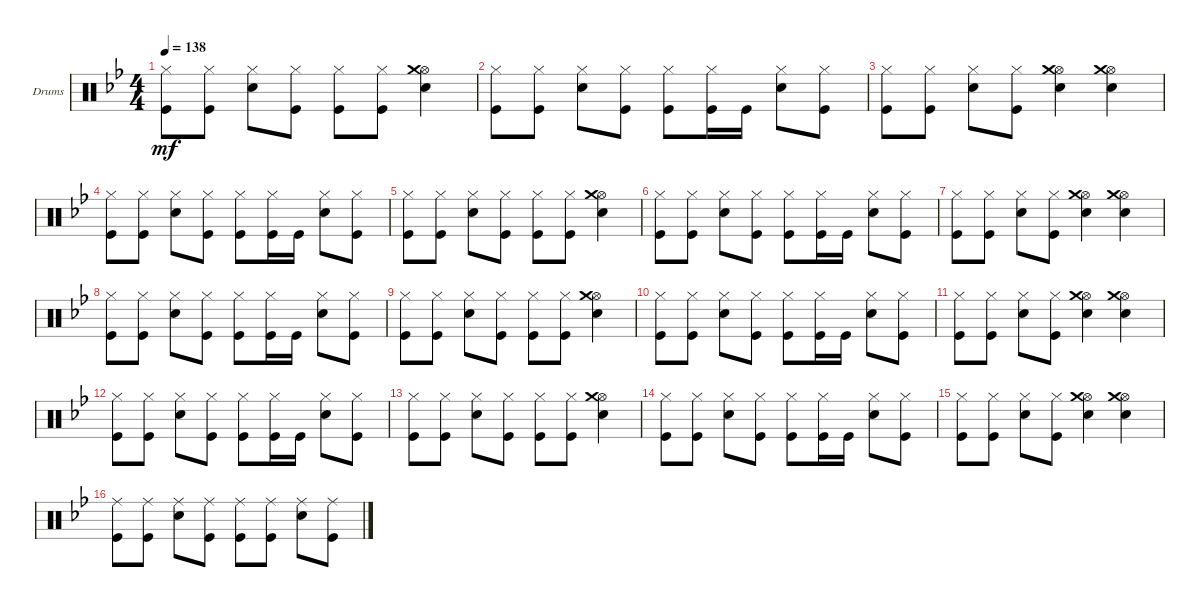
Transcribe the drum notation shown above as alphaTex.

\defaultSystemsLayout 4
\bracketExtendMode groupsimilarinstruments
\firstSystemTrackNameOrientation horizontal
\otherSystemsTrackNameOrientation horizontal
\track ("Drumkit" "Drums") {instrument percussion}
\staff {score}
\articulation defaults
\ts (4 4)
\tempo 138
\clef neutral
\ks gminor
("Hi-Hat (closed)" "Kick (hit)").8{dy mf} ("Hi-Hat (closed)" "Kick (hit)").8 ("Hi-Hat (closed)" "Snare (hit) 2").8 ("Hi-Hat (closed)" "Kick (hit)").8 ("Hi-Hat (closed)" "Kick (hit)").8 ("Hi-Hat (closed)" "Kick (hit)").8 ("Hi-Hat (open)" "Crash medium (hit)" "Snare (hit) 2").4 |
("Hi-Hat (closed)" "Kick (hit)").8 ("Hi-Hat (closed)" "Kick (hit)").8 ("Hi-Hat (closed)" "Snare (hit) 2").8 ("Hi-Hat (closed)" "Kick (hit)").8 ("Hi-Hat (closed)" "Kick (hit)").8 ("Hi-Hat (closed)" "Kick (hit)").16 "Kick (hit)".16 ("Hi-Hat (closed)" "Snare (hit) 2").8 ("Hi-Hat (closed)" "Kick (hit)").8 |
("Hi-Hat (closed)" "Kick (hit)").8 ("Hi-Hat (closed)" "Kick (hit)").8 ("Hi-Hat (closed)" "Snare (hit) 2").8 ("Hi-Hat (closed)" "Kick (hit)").8 ("Hi-Hat (open)" "Crash medium (hit)" "Snare (hit) 2").4 ("Hi-Hat (open)" "Crash medium (hit)" "Snare (hit) 2").4 |
("Hi-Hat (closed)" "Kick (hit)").8 ("Hi-Hat (closed)" "Kick (hit)").8 ("Hi-Hat (closed)" "Snare (hit) 2").8 ("Hi-Hat (closed)" "Kick (hit)").8 ("Hi-Hat (closed)" "Kick (hit)").8 ("Hi-Hat (closed)" "Kick (hit)").16 "Kick (hit)".16 ("Hi-Hat (closed)" "Snare (hit) 2").8 ("Hi-Hat (closed)" "Kick (hit)").8 |
("Hi-Hat (closed)" "Kick (hit)").8 ("Hi-Hat (closed)" "Kick (hit)").8 ("Hi-Hat (closed)" "Snare (hit) 2").8 ("Hi-Hat (closed)" "Kick (hit)").8 ("Hi-Hat (closed)" "Kick (hit)").8 ("Hi-Hat (closed)" "Kick (hit)").8 ("Hi-Hat (open)" "Crash medium (hit)" "Snare (hit) 2").4 |
("Hi-Hat (closed)" "Kick (hit)").8 ("Hi-Hat (closed)" "Kick (hit)").8 ("Hi-Hat (closed)" "Snare (hit) 2").8 ("Hi-Hat (closed)" "Kick (hit)").8 ("Hi-Hat (closed)" "Kick (hit)").8 ("Hi-Hat (closed)" "Kick (hit)").16 "Kick (hit)".16 ("Hi-Hat (closed)" "Snare (hit) 2").8 ("Hi-Hat (closed)" "Kick (hit)").8 |
("Hi-Hat (closed)" "Kick (hit)").8 ("Hi-Hat (closed)" "Kick (hit)").8 ("Hi-Hat (closed)" "Snare (hit) 2").8 ("Hi-Hat (closed)" "Kick (hit)").8 ("Hi-Hat (open)" "Crash medium (hit)" "Snare (hit) 2").4 ("Hi-Hat (open)" "Crash medium (hit)" "Snare (hit) 2").4 |
("Hi-Hat (closed)" "Kick (hit)").8 ("Hi-Hat (closed)" "Kick (hit)").8 ("Hi-Hat (closed)" "Snare (hit) 2").8 ("Hi-Hat (closed)" "Kick (hit)").8 ("Hi-Hat (closed)" "Kick (hit)").8 ("Hi-Hat (closed)" "Kick (hit)").16 "Kick (hit)".16 ("Hi-Hat (closed)" "Snare (hit) 2").8 ("Hi-Hat (closed)" "Kick (hit)").8 |
("Hi-Hat (closed)" "Kick (hit)").8 ("Hi-Hat (closed)" "Kick (hit)").8 ("Hi-Hat (closed)" "Snare (hit) 2").8 ("Hi-Hat (closed)" "Kick (hit)").8 ("Hi-Hat (closed)" "Kick (hit)").8 ("Hi-Hat (closed)" "Kick (hit)").8 ("Hi-Hat (open)" "Crash medium (hit)" "Snare (hit) 2").4 |
("Hi-Hat (closed)" "Kick (hit)").8 ("Hi-Hat (closed)" "Kick (hit)").8 ("Hi-Hat (closed)" "Snare (hit) 2").8 ("Hi-Hat (closed)" "Kick (hit)").8 ("Hi-Hat (closed)" "Kick (hit)").8 ("Hi-Hat (closed)" "Kick (hit)").16 "Kick (hit)".16 ("Hi-Hat (closed)" "Snare (hit) 2").8 ("Hi-Hat (closed)" "Kick (hit)").8 |
("Hi-Hat (closed)" "Kick (hit)").8 ("Hi-Hat (closed)" "Kick (hit)").8 ("Hi-Hat (closed)" "Snare (hit) 2").8 ("Hi-Hat (closed)" "Kick (hit)").8 ("Hi-Hat (open)" "Crash medium (hit)" "Snare (hit) 2").4 ("Hi-Hat (open)" "Crash medium (hit)" "Snare (hit) 2").4 |
("Hi-Hat (closed)" "Kick (hit)").8 ("Hi-Hat (closed)" "Kick (hit)").8 ("Hi-Hat (closed)" "Snare (hit) 2").8 ("Hi-Hat (closed)" "Kick (hit)").8 ("Hi-Hat (closed)" "Kick (hit)").8 ("Hi-Hat (closed)" "Kick (hit)").16 "Kick (hit)".16 ("Hi-Hat (closed)" "Snare (hit) 2").8 ("Hi-Hat (closed)" "Kick (hit)").8 |
("Hi-Hat (closed)" "Kick (hit)").8 ("Hi-Hat (closed)" "Kick (hit)").8 ("Hi-Hat (closed)" "Snare (hit) 2").8 ("Hi-Hat (closed)" "Kick (hit)").8 ("Hi-Hat (closed)" "Kick (hit)").8 ("Hi-Hat (closed)" "Kick (hit)").8 ("Hi-Hat (open)" "Crash medium (hit)" "Snare (hit) 2").4 |
("Hi-Hat (closed)" "Kick (hit)").8 ("Hi-Hat (closed)" "Kick (hit)").8 ("Hi-Hat (closed)" "Snare (hit) 2").8 ("Hi-Hat (closed)" "Kick (hit)").8 ("Hi-Hat (closed)" "Kick (hit)").8 ("Hi-Hat (closed)" "Kick (hit)").16 "Kick (hit)".16 ("Hi-Hat (closed)" "Snare (hit) 2").8 ("Hi-Hat (closed)" "Kick (hit)").8 |
("Hi-Hat (closed)" "Kick (hit)").8 ("Hi-Hat (closed)" "Kick (hit)").8 ("Hi-Hat (closed)" "Snare (hit) 2").8 ("Hi-Hat (closed)" "Kick (hit)").8 ("Hi-Hat (open)" "Crash medium (hit)" "Snare (hit) 2").4 ("Hi-Hat (open)" "Crash medium (hit)" "Snare (hit) 2").4 |
("Ride (middle)" "Kick (hit)").8 ("Ride (middle)" "Kick (hit)").8 ("Ride (middle)" "Snare (hit) 2").8 ("Ride (middle)" "Kick (hit)").8 ("Ride (middle)" "Kick (hit)").8 ("Ride (middle)" "Kick (hit)").8 ("Ride (middle)" "Snare (hit) 2").8 ("Ride (middle)" "Kick (hit)").8
